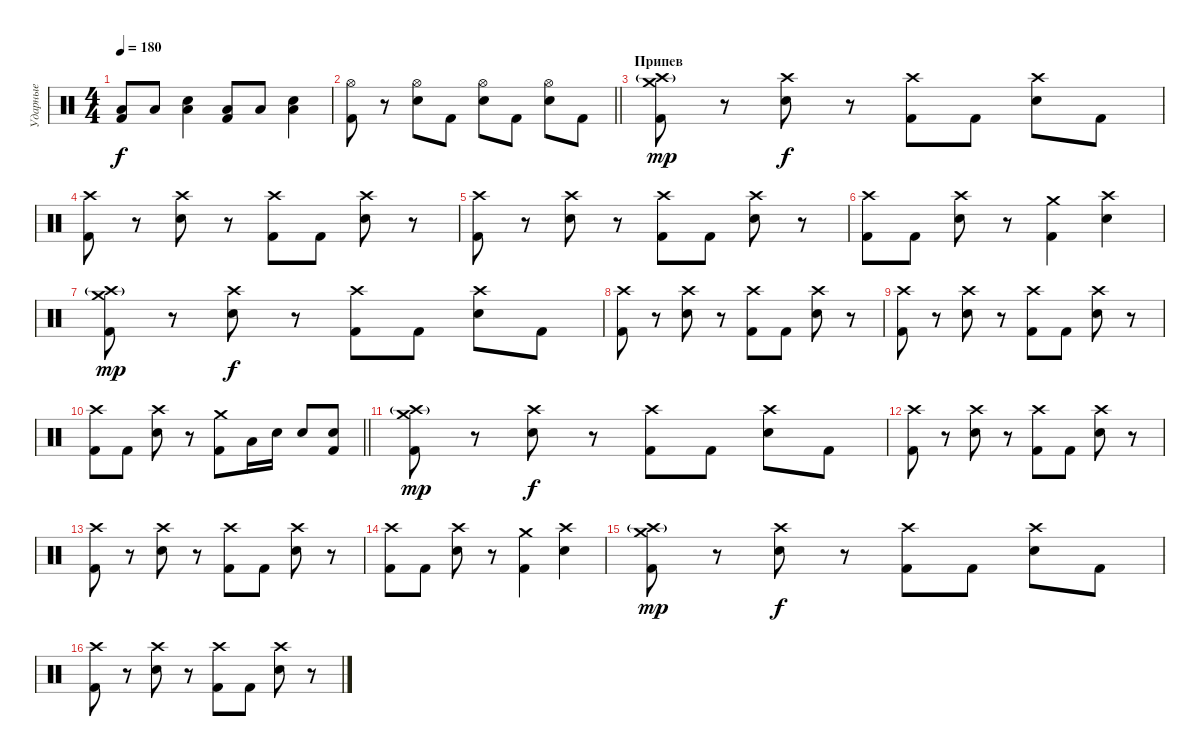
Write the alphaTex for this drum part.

\track ("Ударные" "Ударные") {instrument percussion}
\staff {score}
\articulation defaults
\ts (4 4)
\tempo 180
\clef neutral
\ks c
("Low Floor Tom (hit)" "Kick (hit) 2").8{dy f} "Low Tom (hit)".8 ("Low Floor Tom (hit)" "Snare (hit) 2").4 ("Low Floor Tom (hit)" "Kick (hit) 2").8 "Low Tom (hit)".8 ("Low Floor Tom (hit)" "Snare (hit) 2").4 |
\barLineRight lightlight
("Hi-Hat (open)" "Kick (hit) 2").8 r.8 ("Hi-Hat (open)" "Snare (hit) 2").8 "Kick (hit) 2".8 ("Hi-Hat (open)" "Snare (hit) 2").8 "Kick (hit) 2".8 ("Hi-Hat (open)" "Snare (hit) 2").8 "Kick (hit) 2".8 |
\section ("" "Припев")
("Crash medium (hit)" "Crash high (hit)"{g} "Kick (hit) 2").8{dy mp} r.8 ("Crash high (hit)" "Snare (hit) 2").8{dy f} r.8 ("Crash high (hit)" "Kick (hit) 2").8 "Kick (hit) 2".8 ("Crash high (hit)" "Snare (hit) 2").8 "Kick (hit) 2".8 |
("Crash high (hit)" "Kick (hit) 2").8 r.8 ("Crash high (hit)" "Snare (hit) 2").8 r.8 ("Crash high (hit)" "Kick (hit) 2").8 "Kick (hit) 2".8 ("Crash high (hit)" "Snare (hit) 2").8 r.8 |
("Crash high (hit)" "Kick (hit) 2").8 r.8 ("Crash high (hit)" "Snare (hit) 2").8 r.8 ("Crash high (hit)" "Kick (hit) 2").8 "Kick (hit) 2".8 ("Crash high (hit)" "Snare (hit) 2").8 r.8 |
("Crash high (hit)" "Kick (hit) 2").8 "Kick (hit) 2".8 ("Crash high (hit)" "Snare (hit) 2").8 r.8 ("Crash medium (hit)" "Kick (hit) 2").4 ("Crash high (hit)" "Snare (hit) 2").4 |
("Crash medium (hit)" "Crash high (hit)"{g} "Kick (hit) 2").8{dy mp} r.8 ("Crash high (hit)" "Snare (hit) 2").8{dy f} r.8 ("Crash high (hit)" "Kick (hit) 2").8 "Kick (hit) 2".8 ("Crash high (hit)" "Snare (hit) 2").8 "Kick (hit) 2".8 |
("Crash high (hit)" "Kick (hit) 2").8 r.8 ("Crash high (hit)" "Snare (hit) 2").8 r.8 ("Crash high (hit)" "Kick (hit) 2").8 "Kick (hit) 2".8 ("Crash high (hit)" "Snare (hit) 2").8 r.8 |
("Crash high (hit)" "Kick (hit) 2").8 r.8 ("Crash high (hit)" "Snare (hit) 2").8 r.8 ("Crash high (hit)" "Kick (hit) 2").8 "Kick (hit) 2".8 ("Crash high (hit)" "Snare (hit) 2").8 r.8 |
\barLineRight lightlight
("Crash high (hit)" "Kick (hit) 2").8 "Kick (hit) 2".8 ("Crash high (hit)" "Snare (hit) 2").8 r.8 ("Crash medium (hit)" "Kick (hit) 2").8 "Low Tom (hit)".16 "Snare (hit) 2".16 "Snare (hit) 2".8 ("Snare (hit) 2" "Kick (hit) 2").8 |
("Crash medium (hit)" "Crash high (hit)"{g} "Kick (hit) 2").8{dy mp} r.8 ("Crash high (hit)" "Snare (hit) 2").8{dy f} r.8 ("Crash high (hit)" "Kick (hit) 2").8 "Kick (hit) 2".8 ("Crash high (hit)" "Snare (hit) 2").8 "Kick (hit) 2".8 |
("Crash high (hit)" "Kick (hit) 2").8 r.8 ("Crash high (hit)" "Snare (hit) 2").8 r.8 ("Crash high (hit)" "Kick (hit) 2").8 "Kick (hit) 2".8 ("Crash high (hit)" "Snare (hit) 2").8 r.8 |
("Crash high (hit)" "Kick (hit) 2").8 r.8 ("Crash high (hit)" "Snare (hit) 2").8 r.8 ("Crash high (hit)" "Kick (hit) 2").8 "Kick (hit) 2".8 ("Crash high (hit)" "Snare (hit) 2").8 r.8 |
("Crash high (hit)" "Kick (hit) 2").8 "Kick (hit) 2".8 ("Crash high (hit)" "Snare (hit) 2").8 r.8 ("Crash medium (hit)" "Kick (hit) 2").4 ("Crash high (hit)" "Snare (hit) 2").4 |
("Crash medium (hit)" "Crash high (hit)"{g} "Kick (hit) 2").8{dy mp} r.8 ("Crash high (hit)" "Snare (hit) 2").8{dy f} r.8 ("Crash high (hit)" "Kick (hit) 2").8 "Kick (hit) 2".8 ("Crash high (hit)" "Snare (hit) 2").8 "Kick (hit) 2".8 |
("Crash high (hit)" "Kick (hit) 2").8 r.8 ("Crash high (hit)" "Snare (hit) 2").8 r.8 ("Crash high (hit)" "Kick (hit) 2").8 "Kick (hit) 2".8 ("Crash high (hit)" "Snare (hit) 2").8 r.8
